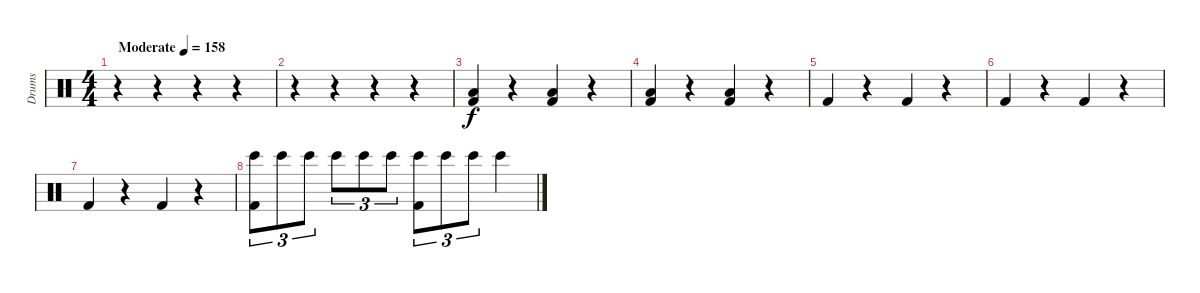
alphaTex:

\track ("Drums" "Drums") {instrument percussion}
\staff {score}
\articulation defaults
\ts (4 4)
\tempo (158 "Moderate")
\clef neutral
\ks c
r.4{dy f} r.4 r.4 r.4 |
r.4 r.4 r.4 r.4 |
("Kick (hit) 2" "Low Tom (hit)").4 r.4 ("Kick (hit) 2" "Low Tom (hit)").4 r.4 |
("Kick (hit) 2" "Low Tom (hit)").4 r.4 ("Kick (hit) 2" "Low Tom (hit)").4 r.4 |
"Kick (hit) 2".4 r.4 "Kick (hit) 2".4 r.4 |
"Kick (hit) 2".4 r.4 "Kick (hit) 2".4 r.4 |
"Kick (hit) 2".4 r.4 "Kick (hit) 2".4 r.4 |
("Kick (hit) 2" "Bongo High (hit)").8{tu (3 2)} "Bongo High (hit)".8{tu (3 2)} "Bongo High (hit)".8{tu (3 2)} "Bongo High (hit)".8{tu (3 2)} "Bongo High (hit)".8{tu (3 2)} "Bongo High (hit)".8{tu (3 2)} ("Kick (hit) 2" "Bongo High (hit)").8{tu (3 2)} "Bongo High (hit)".8{tu (3 2)} "Bongo High (hit)".8{tu (3 2)} "Bongo High (hit)".4
